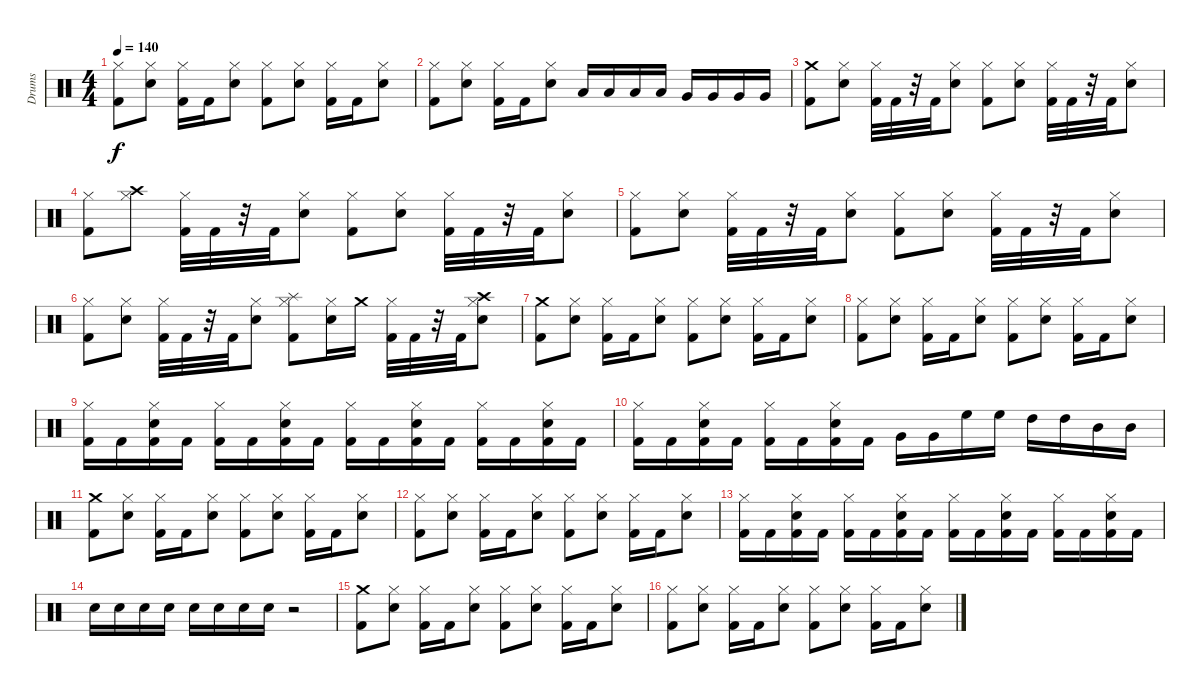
\track ("Drums" "Drums") {instrument percussion}
\staff {score}
\articulation defaults
\ts (4 4)
\tempo 140
\clef neutral
\ks c
("Hi-Hat (closed)" "Kick (hit) 2").8{dy f} ("Hi-Hat (closed)" "Electric Snare (hit)").8 ("Hi-Hat (closed)" "Kick (hit) 2").16 "Kick (hit) 2".16 ("Hi-Hat (closed)" "Electric Snare (hit)").8 ("Hi-Hat (closed)" "Kick (hit) 2").8 ("Hi-Hat (closed)" "Electric Snare (hit)").8 ("Hi-Hat (closed)" "Kick (hit) 2").16 "Kick (hit) 2".16 ("Hi-Hat (closed)" "Electric Snare (hit)").8 |
("Hi-Hat (closed)" "Kick (hit) 2").8 ("Hi-Hat (closed)" "Electric Snare (hit)").8 ("Hi-Hat (closed)" "Kick (hit) 2").16 "Kick (hit) 2".16 ("Hi-Hat (closed)" "Electric Snare (hit)").8 "Low Tom (hit)".16 "Low Tom (hit)".16 "Low Tom (hit)".16 "Low Tom (hit)".16 "Very Low Tom (hit)".16 "Very Low Tom (hit)".16 "Very Low Tom (hit)".16 "Very Low Tom (hit)".16 |
("Crash medium (hit)" "Kick (hit) 2").8 ("Hi-Hat (closed)" "Electric Snare (hit)").8 ("Hi-Hat (closed)" "Kick (hit) 2").32 "Kick (hit) 2".32 r.32 "Kick (hit) 2".32 ("Hi-Hat (closed)" "Electric Snare (hit)").8 ("Hi-Hat (closed)" "Kick (hit) 2").8 ("Hi-Hat (closed)" "Electric Snare (hit)").8 ("Hi-Hat (closed)" "Kick (hit) 2").32 "Kick (hit) 2".32 r.32 "Kick (hit) 2".32 ("Hi-Hat (closed)" "Electric Snare (hit)").8 |
("Hi-Hat (closed)" "Kick (hit) 2").8 ("Hi-Hat (closed)" "Crash high (hit)").8 ("Hi-Hat (closed)" "Kick (hit) 2").32 "Kick (hit) 2".32 r.32 "Kick (hit) 2".32 ("Hi-Hat (closed)" "Electric Snare (hit)").8 ("Hi-Hat (closed)" "Kick (hit) 2").8 ("Hi-Hat (closed)" "Electric Snare (hit)").8 ("Hi-Hat (closed)" "Kick (hit) 2").32 "Kick (hit) 2".32 r.32 "Kick (hit) 2".32 ("Hi-Hat (closed)" "Electric Snare (hit)").8 |
("Hi-Hat (closed)" "Kick (hit) 2").8 ("Hi-Hat (closed)" "Electric Snare (hit)").8 ("Hi-Hat (closed)" "Kick (hit) 2").32 "Kick (hit) 2".32 r.32 "Kick (hit) 2".32 ("Hi-Hat (closed)" "Electric Snare (hit)").8 ("Hi-Hat (closed)" "Kick (hit) 2").8 ("Hi-Hat (closed)" "Electric Snare (hit)").8 ("Hi-Hat (closed)" "Kick (hit) 2").32 "Kick (hit) 2".32 r.32 "Kick (hit) 2".32 ("Hi-Hat (closed)" "Electric Snare (hit)").8 |
("Hi-Hat (closed)" "Kick (hit) 2").8 ("Hi-Hat (closed)" "Electric Snare (hit)").8 ("Hi-Hat (closed)" "Kick (hit) 2").32 "Kick (hit) 2".32 r.32 "Kick (hit) 2".32 ("Hi-Hat (closed)" "Electric Snare (hit)").8 ("Splash (hit)" "Hi-Hat (closed)" "Kick (hit) 2").8 ("Hi-Hat (closed)" "Electric Snare (hit)").16 "Crash medium (hit)".16 ("Hi-Hat (closed)" "Kick (hit) 2").32 "Kick (hit) 2".32 r.32 "Kick (hit) 2".32 ("Crash high (hit)" "Hi-Hat (closed)" "Electric Snare (hit)").8 |
("Crash medium (hit)" "Kick (hit) 2").8 ("Hi-Hat (closed)" "Electric Snare (hit)").8 ("Hi-Hat (closed)" "Kick (hit) 2").16 "Kick (hit) 2".16 ("Hi-Hat (closed)" "Electric Snare (hit)").8 ("Hi-Hat (closed)" "Kick (hit) 2").8 ("Hi-Hat (closed)" "Electric Snare (hit)").8 ("Hi-Hat (closed)" "Kick (hit) 2").16 "Kick (hit) 2".16 ("Hi-Hat (closed)" "Electric Snare (hit)").8 |
("Hi-Hat (closed)" "Kick (hit) 2").8 ("Hi-Hat (closed)" "Electric Snare (hit)").8 ("Hi-Hat (closed)" "Kick (hit) 2").16 "Kick (hit) 2".16 ("Hi-Hat (closed)" "Electric Snare (hit)").8 ("Hi-Hat (closed)" "Kick (hit) 2").8 ("Hi-Hat (closed)" "Electric Snare (hit)").8 ("Hi-Hat (closed)" "Kick (hit) 2").16 "Kick (hit) 2".16 ("Hi-Hat (closed)" "Electric Snare (hit)").8 |
("Hi-Hat (closed)" "Kick (hit) 2").16 "Kick (hit) 2".16 ("Hi-Hat (closed)" "Electric Snare (hit)" "Kick (hit) 2").16 "Kick (hit) 2".16 ("Hi-Hat (closed)" "Kick (hit) 2").16 "Kick (hit) 2".16 ("Hi-Hat (closed)" "Electric Snare (hit)" "Kick (hit) 2").16 "Kick (hit) 2".16 ("Hi-Hat (closed)" "Kick (hit) 2").16 "Kick (hit) 2".16 ("Hi-Hat (closed)" "Electric Snare (hit)" "Kick (hit) 2").16 "Kick (hit) 2".16 ("Hi-Hat (closed)" "Kick (hit) 2").16 "Kick (hit) 2".16 ("Hi-Hat (closed)" "Electric Snare (hit)" "Kick (hit) 2").16 "Kick (hit) 2".16 |
("Hi-Hat (closed)" "Kick (hit) 2").16 "Kick (hit) 2".16 ("Hi-Hat (closed)" "Electric Snare (hit)" "Kick (hit) 2").16 "Kick (hit) 2".16 ("Hi-Hat (closed)" "Kick (hit) 2").16 "Kick (hit) 2".16 ("Hi-Hat (closed)" "Electric Snare (hit)" "Kick (hit) 2").16 "Kick (hit) 2".16 "Very Low Tom (hit)".16 "Very Low Tom (hit)".16 "High Floor Tom (hit)".16 "High Floor Tom (hit)".16 "High Tom (hit)".16 "High Tom (hit)".16 "Mid Tom (hit)".16 "Mid Tom (hit)".16 |
("Crash medium (hit)" "Kick (hit) 2").8 ("Hi-Hat (closed)" "Electric Snare (hit)").8 ("Hi-Hat (closed)" "Kick (hit) 2").16 "Kick (hit) 2".16 ("Hi-Hat (closed)" "Electric Snare (hit)").8 ("Hi-Hat (closed)" "Kick (hit) 2").8 ("Hi-Hat (closed)" "Electric Snare (hit)").8 ("Hi-Hat (closed)" "Kick (hit) 2").16 "Kick (hit) 2".16 ("Hi-Hat (closed)" "Electric Snare (hit)").8 |
("Hi-Hat (closed)" "Kick (hit) 2").8 ("Hi-Hat (closed)" "Electric Snare (hit)").8 ("Hi-Hat (closed)" "Kick (hit) 2").16 "Kick (hit) 2".16 ("Hi-Hat (closed)" "Electric Snare (hit)").8 ("Hi-Hat (closed)" "Kick (hit) 2").8 ("Hi-Hat (closed)" "Electric Snare (hit)").8 ("Hi-Hat (closed)" "Kick (hit) 2").16 "Kick (hit) 2".16 ("Hi-Hat (closed)" "Electric Snare (hit)").8 |
("Hi-Hat (closed)" "Kick (hit) 2").16 "Kick (hit) 2".16 ("Hi-Hat (closed)" "Electric Snare (hit)" "Kick (hit) 2").16 "Kick (hit) 2".16 ("Hi-Hat (closed)" "Kick (hit) 2").16 "Kick (hit) 2".16 ("Hi-Hat (closed)" "Electric Snare (hit)" "Kick (hit) 2").16 "Kick (hit) 2".16 ("Hi-Hat (closed)" "Kick (hit) 2").16 "Kick (hit) 2".16 ("Hi-Hat (closed)" "Electric Snare (hit)" "Kick (hit) 2").16 "Kick (hit) 2".16 ("Hi-Hat (closed)" "Kick (hit) 2").16 "Kick (hit) 2".16 ("Hi-Hat (closed)" "Electric Snare (hit)" "Kick (hit) 2").16 "Kick (hit) 2".16 |
"Electric Snare (hit)".16 "Electric Snare (hit)".16 "Electric Snare (hit)".16 "Electric Snare (hit)".16 "Electric Snare (hit)".16 "Electric Snare (hit)".16 "Electric Snare (hit)".16 "Electric Snare (hit)".16 r.2 |
("Crash medium (hit)" "Kick (hit) 2").8 ("Hi-Hat (closed)" "Electric Snare (hit)").8 ("Hi-Hat (closed)" "Kick (hit) 2").16 "Kick (hit) 2".16 ("Hi-Hat (closed)" "Electric Snare (hit)").8 ("Hi-Hat (closed)" "Kick (hit) 2").8 ("Hi-Hat (closed)" "Electric Snare (hit)").8 ("Hi-Hat (closed)" "Kick (hit) 2").16 "Kick (hit) 2".16 ("Hi-Hat (closed)" "Electric Snare (hit)").8 |
("Hi-Hat (closed)" "Kick (hit) 2").8 ("Hi-Hat (closed)" "Electric Snare (hit)").8 ("Hi-Hat (closed)" "Kick (hit) 2").16 "Kick (hit) 2".16 ("Hi-Hat (closed)" "Electric Snare (hit)").8 ("Hi-Hat (closed)" "Kick (hit) 2").8 ("Hi-Hat (closed)" "Electric Snare (hit)").8 ("Hi-Hat (closed)" "Kick (hit) 2").16 "Kick (hit) 2".16 ("Hi-Hat (closed)" "Electric Snare (hit)").8
